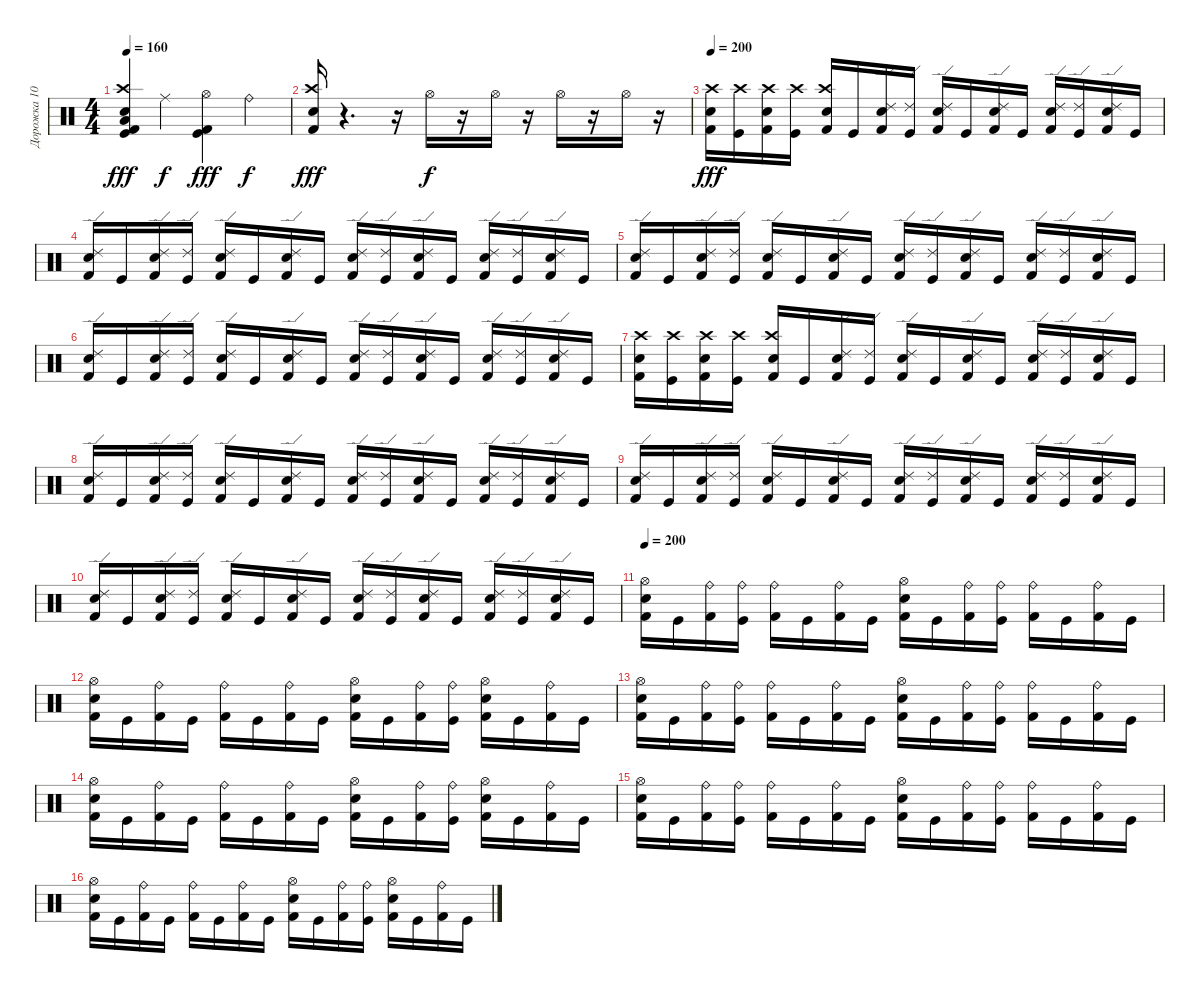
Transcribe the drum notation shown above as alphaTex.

\track ("Дорожка 10" "Дорожка 10") {instrument percussion}
\staff {score}
\articulation defaults
\ts (4 4)
\tempo 160
\clef neutral
\ks c
("Low Floor Tom (hit)" "Snare (hit) 2" "Crash high (hit)" "Kick (hit)" "Kick (hit) 2").4{dy fff} "Ride (middle)".4{dy f} ("Hi-Hat (open)" "Kick (hit) 2" "Kick (hit)").4{dy fff} "Ride (bell)".4{dy f} |
("Crash high (hit)" "Snare (hit) 2" "Kick (hit) 2").16{dy fff} r.4{d} r.16 "Hi-Hat (open)".16{dy f} r.16 "Hi-Hat (open)".16 r.16 "Hi-Hat (open)".16 r.16 "Hi-Hat (open)".16 r.16 |
\tempo 200
("Crash high (hit)" "Snare (hit) 2" "Kick (hit) 2").16{dy fff} ("Crash high (hit)" "Kick (hit)").16 ("Crash high (hit)" "Snare (hit) 2" "Kick (hit) 2").16 ("Crash high (hit)" "Kick (hit)").16 ("Crash high (hit)" "Snare (hit) 2" "Kick (hit) 2").16 "Kick (hit)".16 ("Snare (hit) 2" "Ride (edge) 2" "Kick (hit) 2").16 ("Ride (edge) 2" "Kick (hit)").16 ("Snare (hit) 2" "Ride (edge) 2" "Kick (hit) 2").16 "Kick (hit)".16 ("Snare (hit) 2" "Ride (edge) 2" "Kick (hit) 2").16 "Kick (hit)".16 ("Ride (edge) 2" "Snare (hit) 2" "Kick (hit) 2").16 ("Ride (edge) 2" "Kick (hit)").16 ("Snare (hit) 2" "Ride (edge) 2" "Kick (hit) 2").16 "Kick (hit)".16 |
("Snare (hit) 2" "Ride (edge) 2" "Kick (hit) 2").16 "Kick (hit)".16 ("Ride (edge) 2" "Snare (hit) 2" "Kick (hit) 2").16 ("Ride (edge) 2" "Kick (hit)").16 ("Ride (edge) 2" "Snare (hit) 2" "Kick (hit) 2").16 "Kick (hit)".16 ("Snare (hit) 2" "Ride (edge) 2" "Kick (hit) 2").16 "Kick (hit)".16 ("Ride (edge) 2" "Snare (hit) 2" "Kick (hit) 2").16 ("Ride (edge) 2" "Kick (hit)").16 ("Snare (hit) 2" "Ride (edge) 2" "Kick (hit) 2").16 "Kick (hit)".16 ("Ride (edge) 2" "Snare (hit) 2" "Kick (hit) 2").16 ("Ride (edge) 2" "Kick (hit)").16 ("Ride (edge) 2" "Snare (hit) 2" "Kick (hit) 2").16 "Kick (hit)".16 |
("Snare (hit) 2" "Ride (edge) 2" "Kick (hit) 2").16 "Kick (hit)".16 ("Ride (edge) 2" "Snare (hit) 2" "Kick (hit) 2").16 ("Ride (edge) 2" "Kick (hit)").16 ("Ride (edge) 2" "Snare (hit) 2" "Kick (hit) 2").16 "Kick (hit)".16 ("Snare (hit) 2" "Ride (edge) 2" "Kick (hit) 2").16 "Kick (hit)".16 ("Ride (edge) 2" "Snare (hit) 2" "Kick (hit) 2").16 ("Ride (edge) 2" "Kick (hit)").16 ("Snare (hit) 2" "Ride (edge) 2" "Kick (hit) 2").16 "Kick (hit)".16 ("Ride (edge) 2" "Snare (hit) 2" "Kick (hit) 2").16 ("Ride (edge) 2" "Kick (hit)").16 ("Ride (edge) 2" "Snare (hit) 2" "Kick (hit) 2").16 "Kick (hit)".16 |
("Snare (hit) 2" "Ride (edge) 2" "Kick (hit) 2").16 "Kick (hit)".16 ("Ride (edge) 2" "Snare (hit) 2" "Kick (hit) 2").16 ("Ride (edge) 2" "Kick (hit)").16 ("Ride (edge) 2" "Snare (hit) 2" "Kick (hit) 2").16 "Kick (hit)".16 ("Snare (hit) 2" "Ride (edge) 2" "Kick (hit) 2").16 "Kick (hit)".16 ("Ride (edge) 2" "Snare (hit) 2" "Kick (hit) 2").16 ("Ride (edge) 2" "Kick (hit)").16 ("Snare (hit) 2" "Ride (edge) 2" "Kick (hit) 2").16 "Kick (hit)".16 ("Ride (edge) 2" "Snare (hit) 2" "Kick (hit) 2").16 ("Ride (edge) 2" "Kick (hit)").16 ("Ride (edge) 2" "Snare (hit) 2" "Kick (hit) 2").16 "Kick (hit)".16 |
("Crash high (hit)" "Snare (hit) 2" "Kick (hit) 2").16 ("Crash high (hit)" "Kick (hit)").16 ("Crash high (hit)" "Snare (hit) 2" "Kick (hit) 2").16 ("Crash high (hit)" "Kick (hit)").16 ("Crash high (hit)" "Snare (hit) 2" "Kick (hit) 2").16 "Kick (hit)".16 ("Snare (hit) 2" "Ride (edge) 2" "Kick (hit) 2").16 ("Ride (edge) 2" "Kick (hit)").16 ("Snare (hit) 2" "Ride (edge) 2" "Kick (hit) 2").16 "Kick (hit)".16 ("Snare (hit) 2" "Ride (edge) 2" "Kick (hit) 2").16 "Kick (hit)".16 ("Ride (edge) 2" "Snare (hit) 2" "Kick (hit) 2").16 ("Ride (edge) 2" "Kick (hit)").16 ("Snare (hit) 2" "Ride (edge) 2" "Kick (hit) 2").16 "Kick (hit)".16 |
("Snare (hit) 2" "Ride (edge) 2" "Kick (hit) 2").16 "Kick (hit)".16 ("Ride (edge) 2" "Snare (hit) 2" "Kick (hit) 2").16 ("Ride (edge) 2" "Kick (hit)").16 ("Ride (edge) 2" "Snare (hit) 2" "Kick (hit) 2").16 "Kick (hit)".16 ("Snare (hit) 2" "Ride (edge) 2" "Kick (hit) 2").16 "Kick (hit)".16 ("Ride (edge) 2" "Snare (hit) 2" "Kick (hit) 2").16 ("Ride (edge) 2" "Kick (hit)").16 ("Snare (hit) 2" "Ride (edge) 2" "Kick (hit) 2").16 "Kick (hit)".16 ("Ride (edge) 2" "Snare (hit) 2" "Kick (hit) 2").16 ("Ride (edge) 2" "Kick (hit)").16 ("Ride (edge) 2" "Snare (hit) 2" "Kick (hit) 2").16 "Kick (hit)".16 |
("Snare (hit) 2" "Ride (edge) 2" "Kick (hit) 2").16 "Kick (hit)".16 ("Ride (edge) 2" "Snare (hit) 2" "Kick (hit) 2").16 ("Ride (edge) 2" "Kick (hit)").16 ("Ride (edge) 2" "Snare (hit) 2" "Kick (hit) 2").16 "Kick (hit)".16 ("Snare (hit) 2" "Ride (edge) 2" "Kick (hit) 2").16 "Kick (hit)".16 ("Ride (edge) 2" "Snare (hit) 2" "Kick (hit) 2").16 ("Ride (edge) 2" "Kick (hit)").16 ("Snare (hit) 2" "Ride (edge) 2" "Kick (hit) 2").16 "Kick (hit)".16 ("Ride (edge) 2" "Snare (hit) 2" "Kick (hit) 2").16 ("Ride (edge) 2" "Kick (hit)").16 ("Ride (edge) 2" "Snare (hit) 2" "Kick (hit) 2").16 "Kick (hit)".16 |
("Snare (hit) 2" "Ride (edge) 2" "Kick (hit) 2").16 "Kick (hit)".16 ("Ride (edge) 2" "Snare (hit) 2" "Kick (hit) 2").16 ("Ride (edge) 2" "Kick (hit)").16 ("Ride (edge) 2" "Snare (hit) 2" "Kick (hit) 2").16 "Kick (hit)".16 ("Snare (hit) 2" "Ride (edge) 2" "Kick (hit) 2").16 "Kick (hit)".16 ("Ride (edge) 2" "Snare (hit) 2" "Kick (hit) 2").16 ("Ride (edge) 2" "Kick (hit)").16 ("Snare (hit) 2" "Ride (edge) 2" "Kick (hit) 2").16 "Kick (hit)".16 ("Ride (edge) 2" "Snare (hit) 2" "Kick (hit) 2").16 ("Ride (edge) 2" "Kick (hit)").16 ("Ride (edge) 2" "Snare (hit) 2" "Kick (hit) 2").16 "Kick (hit)".16 |
\tempo 200
("Kick (hit) 2" "Snare (hit) 2" "Hi-Hat (open)").16 "Kick (hit)".16 ("Ride (bell)" "Kick (hit) 2").16 ("Ride (bell)" "Kick (hit)").16 ("Kick (hit) 2" "Ride (bell)").16 "Kick (hit)".16 ("Ride (bell)" "Kick (hit) 2").16 "Kick (hit)".16 ("Snare (hit) 2" "Kick (hit) 2" "Hi-Hat (open)").16 "Kick (hit)".16 ("Kick (hit) 2" "Ride (bell)").16 ("Kick (hit)" "Ride (bell)").16 ("Kick (hit) 2" "Ride (bell)").16 "Kick (hit)".16 ("Ride (bell)" "Kick (hit) 2").16 "Kick (hit)".16 |
("Kick (hit) 2" "Snare (hit) 2" "Hi-Hat (open)").16 "Kick (hit)".16 ("Ride (bell)" "Kick (hit) 2").16 "Kick (hit)".16 ("Kick (hit) 2" "Ride (bell)").16 "Kick (hit)".16 ("Kick (hit) 2" "Ride (bell)").16 "Kick (hit)".16 ("Kick (hit) 2" "Snare (hit) 2" "Hi-Hat (open)").16 "Kick (hit)".16 ("Ride (bell)" "Kick (hit) 2").16 ("Ride (bell)" "Kick (hit)").16 ("Snare (hit) 2" "Kick (hit) 2" "Hi-Hat (open)").16 "Kick (hit)".16 ("Ride (bell)" "Kick (hit) 2").16 "Kick (hit)".16 |
("Snare (hit) 2" "Kick (hit) 2" "Hi-Hat (open)").16 "Kick (hit)".16 ("Ride (bell)" "Kick (hit) 2").16 ("Kick (hit)" "Ride (bell)").16 ("Ride (bell)" "Kick (hit) 2").16 "Kick (hit)".16 ("Ride (bell)" "Kick (hit) 2").16 "Kick (hit)".16 ("Snare (hit) 2" "Kick (hit) 2" "Hi-Hat (open)").16 "Kick (hit)".16 ("Ride (bell)" "Kick (hit) 2").16 ("Ride (bell)" "Kick (hit)").16 ("Ride (bell)" "Kick (hit) 2").16 "Kick (hit)".16 ("Ride (bell)" "Kick (hit) 2").16 "Kick (hit)".16 |
("Kick (hit) 2" "Snare (hit) 2" "Hi-Hat (open)").16 "Kick (hit)".16 ("Kick (hit) 2" "Ride (bell)").16 "Kick (hit)".16 ("Ride (bell)" "Kick (hit) 2").16 "Kick (hit)".16 ("Ride (bell)" "Kick (hit) 2").16 "Kick (hit)".16 ("Snare (hit) 2" "Hi-Hat (open)" "Kick (hit) 2").16 "Kick (hit)".16 ("Ride (bell)" "Kick (hit) 2").16 ("Ride (bell)" "Kick (hit)").16 ("Snare (hit) 2" "Hi-Hat (open)" "Kick (hit) 2").16 "Kick (hit)".16 ("Kick (hit) 2" "Ride (bell)").16 "Kick (hit)".16 |
("Snare (hit) 2" "Kick (hit) 2" "Hi-Hat (open)").16 "Kick (hit)".16 ("Ride (bell)" "Kick (hit) 2").16 ("Ride (bell)" "Kick (hit)").16 ("Kick (hit) 2" "Ride (bell)").16 "Kick (hit)".16 ("Kick (hit) 2" "Ride (bell)").16 "Kick (hit)".16 ("Kick (hit) 2" "Hi-Hat (open)" "Snare (hit) 2").16 "Kick (hit)".16 ("Kick (hit) 2" "Ride (bell)").16 ("Kick (hit)" "Ride (bell)").16 ("Kick (hit) 2" "Ride (bell)").16 "Kick (hit)".16 ("Ride (bell)" "Kick (hit) 2").16 "Kick (hit)".16 |
("Kick (hit) 2" "Snare (hit) 2" "Hi-Hat (open)").16 "Kick (hit)".16 ("Kick (hit) 2" "Ride (bell)").16 "Kick (hit)".16 ("Ride (bell)" "Kick (hit) 2").16 "Kick (hit)".16 ("Kick (hit) 2" "Ride (bell)").16 "Kick (hit)".16 ("Kick (hit) 2" "Snare (hit) 2" "Hi-Hat (open)").16 "Kick (hit)".16 ("Ride (bell)" "Kick (hit) 2").16 ("Ride (bell)" "Kick (hit)").16 ("Hi-Hat (open)" "Snare (hit) 2" "Kick (hit) 2").16 "Kick (hit)".16 ("Ride (bell)" "Kick (hit) 2").16 "Kick (hit)".16
